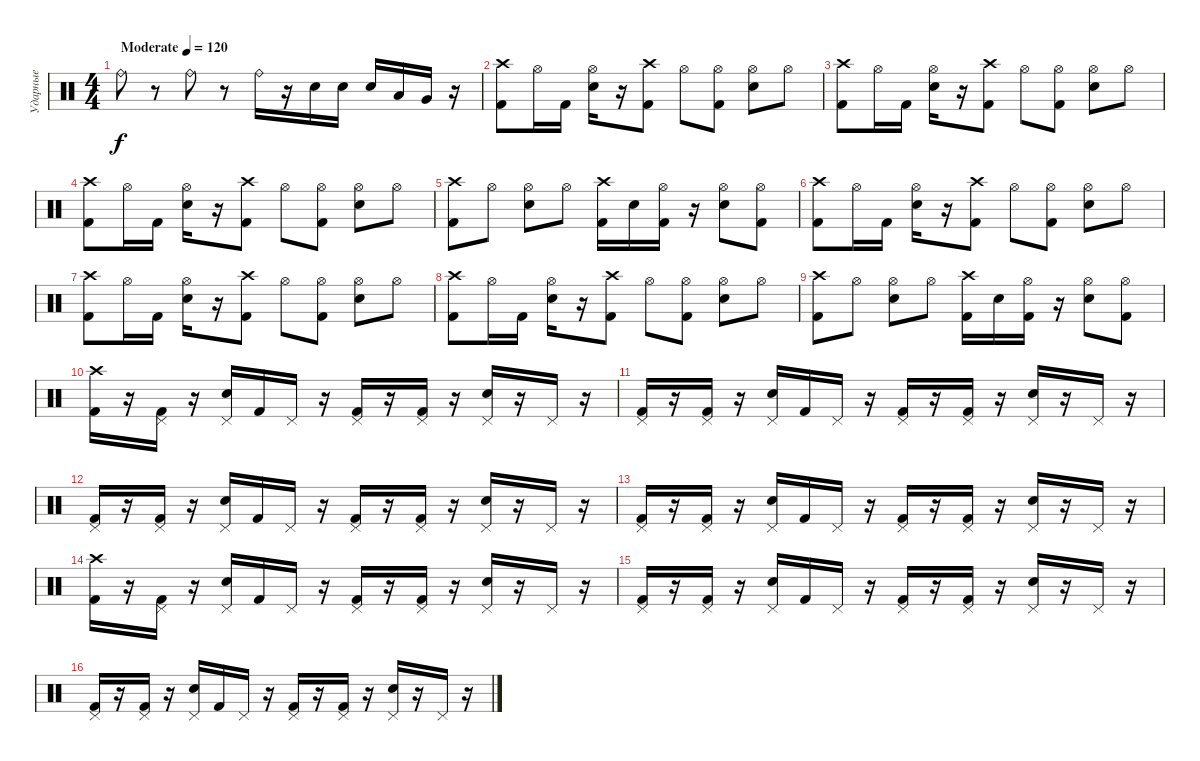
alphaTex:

\track ("Ударные" "Ударные") {instrument percussion}
\staff {score}
\articulation defaults
\ts (4 4)
\tempo (120 "Moderate")
\clef neutral
\ks c "Ride (bell)".8{dy f}
r.8 "Ride (bell)".8 r.8 "Ride (bell)".16 r.16 "Electric Snare (hit)".16 "Electric Snare (hit)".16 "Electric Snare (hit)".16 "Low Tom (hit)".16 "Very Low Tom (hit)".16 r.16 |
("Crash high (hit)" "Kick (hit) 2").8 "Hi-Hat (open)".16 "Kick (hit) 2".16 ("Hi-Hat (open)" "Electric Snare (hit)").16 r.16 ("Crash high (hit)" "Kick (hit) 2").8 "Hi-Hat (open)".8 ("Hi-Hat (open)" "Kick (hit) 2").8 ("Hi-Hat (open)" "Electric Snare (hit)").8 "Hi-Hat (open)".8 |
("Crash high (hit)" "Kick (hit) 2").8 "Hi-Hat (open)".16 "Kick (hit) 2".16 ("Hi-Hat (open)" "Electric Snare (hit)").16 r.16 ("Crash high (hit)" "Kick (hit) 2").8 "Hi-Hat (open)".8 ("Hi-Hat (open)" "Kick (hit) 2").8 ("Hi-Hat (open)" "Electric Snare (hit)").8 "Hi-Hat (open)".8 |
("Crash high (hit)" "Kick (hit) 2").8 "Hi-Hat (open)".16 "Kick (hit) 2".16 ("Hi-Hat (open)" "Electric Snare (hit)").16 r.16 ("Crash high (hit)" "Kick (hit) 2").8 "Hi-Hat (open)".8 ("Hi-Hat (open)" "Kick (hit) 2").8 ("Hi-Hat (open)" "Electric Snare (hit)").8 "Hi-Hat (open)".8 |
("Crash high (hit)" "Kick (hit) 2").8 "Hi-Hat (open)".8 ("Hi-Hat (open)" "Electric Snare (hit)").8 "Hi-Hat (open)".8 ("Crash high (hit)" "Kick (hit) 2").16 "Electric Snare (hit)".16 ("Hi-Hat (open)" "Kick (hit) 2").16 r.16 ("Hi-Hat (open)" "Electric Snare (hit)").8 ("Hi-Hat (open)" "Kick (hit) 2").8 |
("Crash high (hit)" "Kick (hit) 2").8 "Hi-Hat (open)".16 "Kick (hit) 2".16 ("Hi-Hat (open)" "Electric Snare (hit)").16 r.16 ("Crash high (hit)" "Kick (hit) 2").8 "Hi-Hat (open)".8 ("Hi-Hat (open)" "Kick (hit) 2").8 ("Hi-Hat (open)" "Electric Snare (hit)").8 "Hi-Hat (open)".8 |
("Crash high (hit)" "Kick (hit) 2").8 "Hi-Hat (open)".16 "Kick (hit) 2".16 ("Hi-Hat (open)" "Electric Snare (hit)").16 r.16 ("Crash high (hit)" "Kick (hit) 2").8 "Hi-Hat (open)".8 ("Hi-Hat (open)" "Kick (hit) 2").8 ("Hi-Hat (open)" "Electric Snare (hit)").8 "Hi-Hat (open)".8 |
("Crash high (hit)" "Kick (hit) 2").8 "Hi-Hat (open)".16 "Kick (hit) 2".16 ("Hi-Hat (open)" "Electric Snare (hit)").16 r.16 ("Crash high (hit)" "Kick (hit) 2").8 "Hi-Hat (open)".8 ("Hi-Hat (open)" "Kick (hit) 2").8 ("Hi-Hat (open)" "Electric Snare (hit)").8 "Hi-Hat (open)".8 |
("Crash high (hit)" "Kick (hit) 2").8 "Hi-Hat (open)".8 ("Hi-Hat (open)" "Electric Snare (hit)").8 "Hi-Hat (open)".8 ("Crash high (hit)" "Kick (hit) 2").16 "Electric Snare (hit)".16 ("Hi-Hat (open)" "Kick (hit) 2").16 r.16 ("Hi-Hat (open)" "Electric Snare (hit)").8 ("Hi-Hat (open)" "Kick (hit) 2").8 |
("Crash high (hit)" "Kick (hit) 2").16 r.16 ("Pedal Hi-Hat (hit)" "Kick (hit) 2").16 r.16 ("Pedal Hi-Hat (hit)" "Electric Snare (hit)").16 "Kick (hit) 2".16 "Pedal Hi-Hat (hit)".16 r.16 ("Pedal Hi-Hat (hit)" "Kick (hit) 2").16 r.16 ("Pedal Hi-Hat (hit)" "Kick (hit) 2").16 r.16 ("Pedal Hi-Hat (hit)" "Electric Snare (hit)").16 r.16 "Pedal Hi-Hat (hit)".16 r.16 |
("Pedal Hi-Hat (hit)" "Kick (hit) 2").16 r.16 ("Pedal Hi-Hat (hit)" "Kick (hit) 2").16 r.16 ("Pedal Hi-Hat (hit)" "Electric Snare (hit)").16 "Kick (hit) 2".16 "Pedal Hi-Hat (hit)".16 r.16 ("Pedal Hi-Hat (hit)" "Kick (hit) 2").16 r.16 ("Pedal Hi-Hat (hit)" "Kick (hit) 2").16 r.16 ("Pedal Hi-Hat (hit)" "Electric Snare (hit)").16 r.16 "Pedal Hi-Hat (hit)".16 r.16 |
("Pedal Hi-Hat (hit)" "Kick (hit) 2").16 r.16 ("Pedal Hi-Hat (hit)" "Kick (hit) 2").16 r.16 ("Pedal Hi-Hat (hit)" "Electric Snare (hit)").16 "Kick (hit) 2".16 "Pedal Hi-Hat (hit)".16 r.16 ("Pedal Hi-Hat (hit)" "Kick (hit) 2").16 r.16 ("Pedal Hi-Hat (hit)" "Kick (hit) 2").16 r.16 ("Pedal Hi-Hat (hit)" "Electric Snare (hit)").16 r.16 "Pedal Hi-Hat (hit)".16 r.16 |
("Pedal Hi-Hat (hit)" "Kick (hit) 2").16 r.16 ("Pedal Hi-Hat (hit)" "Kick (hit) 2").16 r.16 ("Pedal Hi-Hat (hit)" "Electric Snare (hit)").16 "Kick (hit) 2".16 "Pedal Hi-Hat (hit)".16 r.16 ("Pedal Hi-Hat (hit)" "Kick (hit) 2").16 r.16 ("Pedal Hi-Hat (hit)" "Kick (hit) 2").16 r.16 ("Pedal Hi-Hat (hit)" "Electric Snare (hit)").16 r.16 "Pedal Hi-Hat (hit)".16 r.16 |
("Crash high (hit)" "Kick (hit) 2").16 r.16 ("Pedal Hi-Hat (hit)" "Kick (hit) 2").16 r.16 ("Pedal Hi-Hat (hit)" "Electric Snare (hit)").16 "Kick (hit) 2".16 "Pedal Hi-Hat (hit)".16 r.16 ("Pedal Hi-Hat (hit)" "Kick (hit) 2").16 r.16 ("Pedal Hi-Hat (hit)" "Kick (hit) 2").16 r.16 ("Pedal Hi-Hat (hit)" "Electric Snare (hit)").16 r.16 "Pedal Hi-Hat (hit)".16 r.16 |
("Pedal Hi-Hat (hit)" "Kick (hit) 2").16 r.16 ("Pedal Hi-Hat (hit)" "Kick (hit) 2").16 r.16 ("Pedal Hi-Hat (hit)" "Electric Snare (hit)").16 "Kick (hit) 2".16 "Pedal Hi-Hat (hit)".16 r.16 ("Pedal Hi-Hat (hit)" "Kick (hit) 2").16 r.16 ("Pedal Hi-Hat (hit)" "Kick (hit) 2").16 r.16 ("Pedal Hi-Hat (hit)" "Electric Snare (hit)").16 r.16 "Pedal Hi-Hat (hit)".16 r.16 |
("Pedal Hi-Hat (hit)" "Kick (hit) 2").16 r.16 ("Pedal Hi-Hat (hit)" "Kick (hit) 2").16 r.16 ("Pedal Hi-Hat (hit)" "Electric Snare (hit)").16 "Kick (hit) 2".16 "Pedal Hi-Hat (hit)".16 r.16 ("Pedal Hi-Hat (hit)" "Kick (hit) 2").16 r.16 ("Pedal Hi-Hat (hit)" "Kick (hit) 2").16 r.16 ("Pedal Hi-Hat (hit)" "Electric Snare (hit)").16 r.16 "Pedal Hi-Hat (hit)".16 r.16
